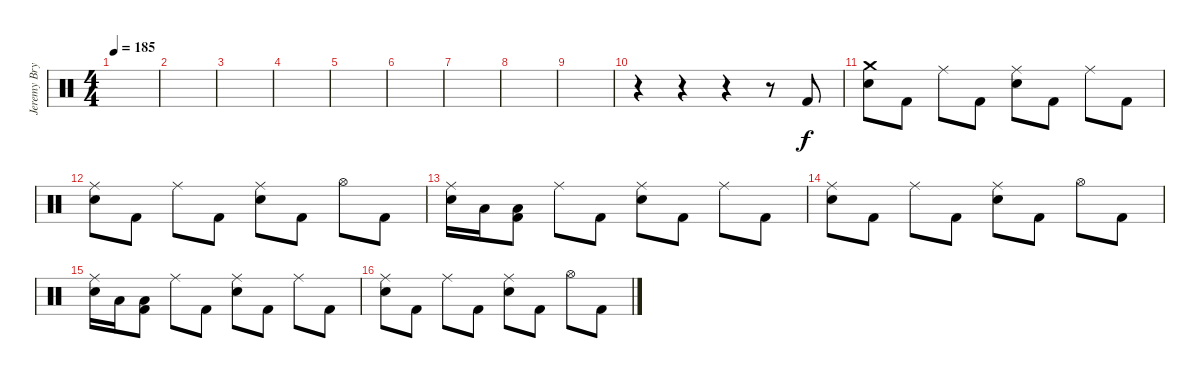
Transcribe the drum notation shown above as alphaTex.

\track ("Jeremy Bryan - Drums" "Jeremy Bry") {instrument percussion}
\staff {score}
\articulation defaults
\ts (4 4)
\tempo 185
\clef neutral
\ks c
|
|
|
|
|
|
|
|
|
r.4 r.4 r.4 r.8 "Kick (hit) 2".8 |
("Crash medium (hit)" "Electric Snare (hit)").8 "Kick (hit) 2".8 "Ride (middle)".8 "Kick (hit) 2".8 ("Ride (middle)" "Electric Snare (hit)").8 "Kick (hit) 2".8 "Ride (middle)".8 "Kick (hit) 2".8 |
("Ride (middle)" "Electric Snare (hit)").8 "Kick (hit) 2".8 "Ride (middle)".8 "Kick (hit) 2".8 ("Ride (middle)" "Electric Snare (hit)").8 "Kick (hit) 2".8 "Hi-Hat (open)".8 "Kick (hit) 2".8 |
("Ride (middle)" "Electric Snare (hit)").16 "Low Tom (hit)".16 ("Low Tom (hit)" "Kick (hit) 2").8 "Ride (middle)".8 "Kick (hit) 2".8 ("Ride (middle)" "Electric Snare (hit)").8 "Kick (hit) 2".8 "Ride (middle)".8 "Kick (hit) 2".8 |
("Ride (middle)" "Electric Snare (hit)").8 "Kick (hit) 2".8 "Ride (middle)".8 "Kick (hit) 2".8 ("Ride (middle)" "Electric Snare (hit)").8 "Kick (hit) 2".8 "Hi-Hat (open)".8 "Kick (hit) 2".8 |
("Ride (middle)" "Electric Snare (hit)").16 "Low Tom (hit)".16 ("Low Tom (hit)" "Kick (hit) 2").8 "Ride (middle)".8 "Kick (hit) 2".8 ("Ride (middle)" "Electric Snare (hit)").8 "Kick (hit) 2".8 "Ride (middle)".8 "Kick (hit) 2".8 |
("Ride (middle)" "Electric Snare (hit)").8 "Kick (hit) 2".8 "Ride (middle)".8 "Kick (hit) 2".8 ("Ride (middle)" "Electric Snare (hit)").8 "Kick (hit) 2".8 "Hi-Hat (open)".8 "Kick (hit) 2".8
